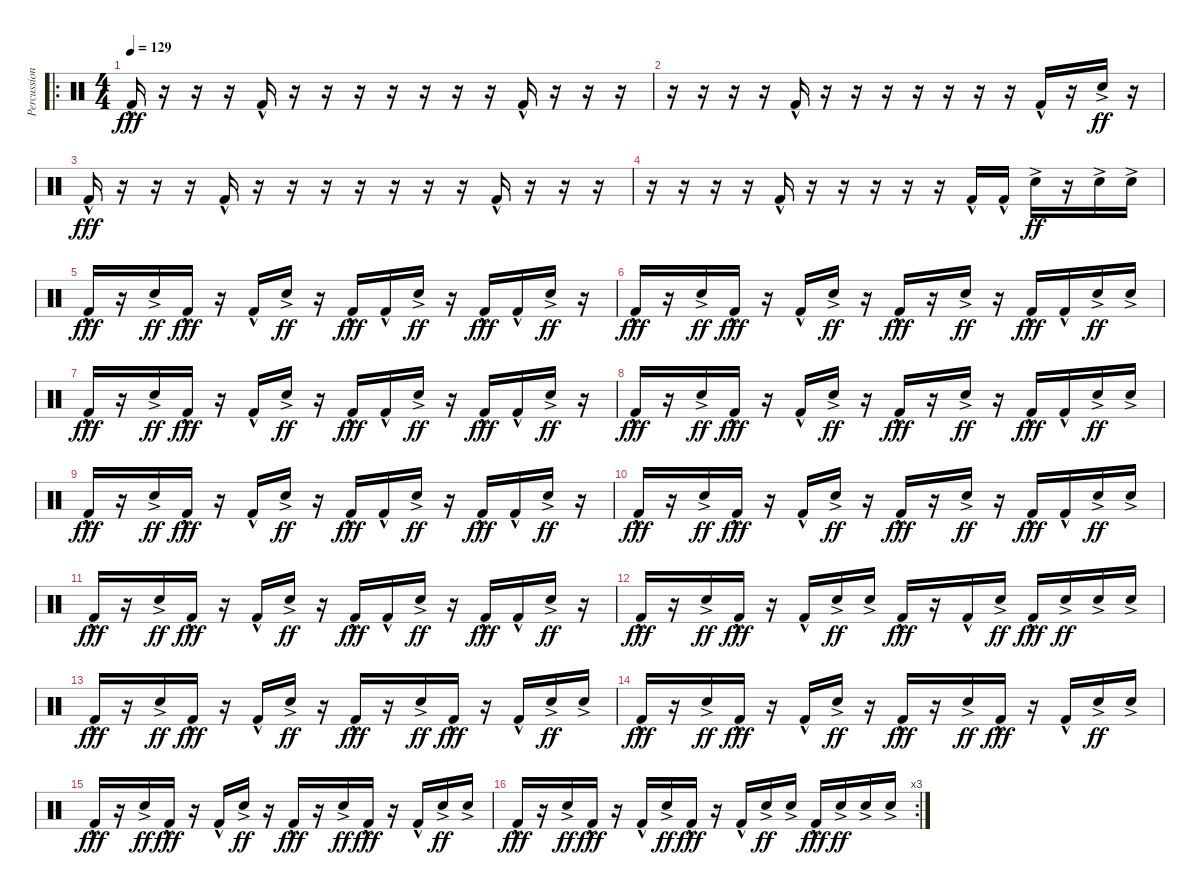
\track ("Percussion" "Percussion") {instrument percussion}
\staff {score}
\articulation defaults
\ro
\ts (4 4)
\tempo 129
\clef neutral
\ks c "Kick (hit) 2"{hac}.16{dy fff}
r.16 r.16 r.16 "Kick (hit) 2"{hac}.16 r.16 r.16 r.16 r.16 r.16 r.16 r.16 "Kick (hit) 2"{hac}.16 r.16 r.16 r.16 |
r.16 r.16 r.16 r.16 "Kick (hit) 2"{hac}.16 r.16 r.16 r.16 r.16 r.16 r.16 r.16 "Kick (hit) 2"{hac}.16 r.16 "Snare (hit) 2"{ac}.16{dy ff} r.16 |
"Kick (hit) 2"{hac}.16{dy fff} r.16 r.16 r.16 "Kick (hit) 2"{hac}.16 r.16 r.16 r.16 r.16 r.16 r.16 r.16 "Kick (hit) 2"{hac}.16 r.16 r.16 r.16 |
r.16 r.16 r.16 r.16 "Kick (hit) 2"{hac}.16 r.16 r.16 r.16 r.16 r.16 "Kick (hit) 2"{hac}.16 "Kick (hit) 2"{hac}.16 "Snare (hit) 2"{ac}.16{dy ff} r.16 "Snare (hit) 2"{ac}.16 "Snare (hit) 2"{ac}.16 |
"Kick (hit) 2"{hac}.16{dy fff} r.16 "Snare (hit) 2"{ac}.16{dy ff} "Kick (hit) 2"{hac}.16{dy fff} r.16 "Kick (hit) 2"{hac}.16 "Snare (hit) 2"{ac}.16{dy ff} r.16 "Kick (hit) 2"{hac}.16{dy fff} "Kick (hit) 2"{hac}.16 "Snare (hit) 2"{ac}.16{dy ff} r.16 "Kick (hit) 2"{hac}.16{dy fff} "Kick (hit) 2"{hac}.16 "Snare (hit) 2"{ac}.16{dy ff} r.16 |
"Kick (hit) 2"{hac}.16{dy fff} r.16 "Snare (hit) 2"{ac}.16{dy ff} "Kick (hit) 2"{hac}.16{dy fff} r.16 "Kick (hit) 2"{hac}.16 "Snare (hit) 2"{ac}.16{dy ff} r.16 "Kick (hit) 2"{hac}.16{dy fff} r.16 "Snare (hit) 2"{ac}.16{dy ff} r.16 "Kick (hit) 2"{hac}.16{dy fff} "Kick (hit) 2"{hac}.16 "Snare (hit) 2"{ac}.16{dy ff} "Snare (hit) 2"{ac}.16 |
"Kick (hit) 2"{hac}.16{dy fff} r.16 "Snare (hit) 2"{ac}.16{dy ff} "Kick (hit) 2"{hac}.16{dy fff} r.16 "Kick (hit) 2"{hac}.16 "Snare (hit) 2"{ac}.16{dy ff} r.16 "Kick (hit) 2"{hac}.16{dy fff} "Kick (hit) 2"{hac}.16 "Snare (hit) 2"{ac}.16{dy ff} r.16 "Kick (hit) 2"{hac}.16{dy fff} "Kick (hit) 2"{hac}.16 "Snare (hit) 2"{ac}.16{dy ff} r.16 |
"Kick (hit) 2"{hac}.16{dy fff} r.16 "Snare (hit) 2"{ac}.16{dy ff} "Kick (hit) 2"{hac}.16{dy fff} r.16 "Kick (hit) 2"{hac}.16 "Snare (hit) 2"{ac}.16{dy ff} r.16 "Kick (hit) 2"{hac}.16{dy fff} r.16 "Snare (hit) 2"{ac}.16{dy ff} r.16 "Kick (hit) 2"{hac}.16{dy fff} "Kick (hit) 2"{hac}.16 "Snare (hit) 2"{ac}.16{dy ff} "Snare (hit) 2"{ac}.16 |
"Kick (hit) 2"{hac}.16{dy fff} r.16 "Snare (hit) 2"{ac}.16{dy ff} "Kick (hit) 2"{hac}.16{dy fff} r.16 "Kick (hit) 2"{hac}.16 "Snare (hit) 2"{ac}.16{dy ff} r.16 "Kick (hit) 2"{hac}.16{dy fff} "Kick (hit) 2"{hac}.16 "Snare (hit) 2"{ac}.16{dy ff} r.16 "Kick (hit) 2"{hac}.16{dy fff} "Kick (hit) 2"{hac}.16 "Snare (hit) 2"{ac}.16{dy ff} r.16 |
"Kick (hit) 2"{hac}.16{dy fff} r.16 "Snare (hit) 2"{ac}.16{dy ff} "Kick (hit) 2"{hac}.16{dy fff} r.16 "Kick (hit) 2"{hac}.16 "Snare (hit) 2"{ac}.16{dy ff} r.16 "Kick (hit) 2"{hac}.16{dy fff} r.16 "Snare (hit) 2"{ac}.16{dy ff} r.16 "Kick (hit) 2"{hac}.16{dy fff} "Kick (hit) 2"{hac}.16 "Snare (hit) 2"{ac}.16{dy ff} "Snare (hit) 2"{ac}.16 |
"Kick (hit) 2"{hac}.16{dy fff} r.16 "Snare (hit) 2"{ac}.16{dy ff} "Kick (hit) 2"{hac}.16{dy fff} r.16 "Kick (hit) 2"{hac}.16 "Snare (hit) 2"{ac}.16{dy ff} r.16 "Kick (hit) 2"{hac}.16{dy fff} "Kick (hit) 2"{hac}.16 "Snare (hit) 2"{ac}.16{dy ff} r.16 "Kick (hit) 2"{hac}.16{dy fff} "Kick (hit) 2"{hac}.16 "Snare (hit) 2"{ac}.16{dy ff} r.16 |
"Kick (hit) 2"{hac}.16{dy fff} r.16 "Snare (hit) 2"{ac}.16{dy ff} "Kick (hit) 2"{hac}.16{dy fff} r.16 "Kick (hit) 2"{hac}.16 "Snare (hit) 2"{ac}.16{dy ff} "Snare (hit) 2"{ac}.16 "Kick (hit) 2"{hac}.16{dy fff} r.16 "Kick (hit) 2"{hac}.16 "Snare (hit) 2"{ac}.16{dy ff} "Kick (hit) 2"{hac}.16{dy fff} "Snare (hit) 2"{ac}.16{dy ff} "Snare (hit) 2"{ac}.16 "Snare (hit) 2"{ac}.16 |
"Kick (hit) 2"{hac}.16{dy fff} r.16 "Snare (hit) 2"{ac}.16{dy ff} "Kick (hit) 2"{hac}.16{dy fff} r.16 "Kick (hit) 2"{hac}.16 "Snare (hit) 2"{ac}.16{dy ff} r.16 "Kick (hit) 2"{hac}.16{dy fff} r.16 "Snare (hit) 2"{ac}.16{dy ff} "Kick (hit) 2"{hac}.16{dy fff} r.16 "Kick (hit) 2"{hac}.16 "Snare (hit) 2"{ac}.16{dy ff} "Snare (hit) 2"{ac}.16 |
"Kick (hit) 2"{hac}.16{dy fff} r.16 "Snare (hit) 2"{ac}.16{dy ff} "Kick (hit) 2"{hac}.16{dy fff} r.16 "Kick (hit) 2"{hac}.16 "Snare (hit) 2"{ac}.16{dy ff} r.16 "Kick (hit) 2"{hac}.16{dy fff} r.16 "Snare (hit) 2"{ac}.16{dy ff} "Kick (hit) 2"{hac}.16{dy fff} r.16 "Kick (hit) 2"{hac}.16 "Snare (hit) 2"{ac}.16{dy ff} "Snare (hit) 2"{ac}.16 |
"Kick (hit) 2"{hac}.16{dy fff} r.16 "Snare (hit) 2"{ac}.16{dy ff} "Kick (hit) 2"{hac}.16{dy fff} r.16 "Kick (hit) 2"{hac}.16 "Snare (hit) 2"{ac}.16{dy ff} r.16 "Kick (hit) 2"{hac}.16{dy fff} r.16 "Snare (hit) 2"{ac}.16{dy ff} "Kick (hit) 2"{hac}.16{dy fff} r.16 "Kick (hit) 2"{hac}.16 "Snare (hit) 2"{ac}.16{dy ff} "Snare (hit) 2"{ac}.16 |
\rc 3 "Kick (hit) 2"{hac}.16{dy fff}
r.16 "Snare (hit) 2"{ac}.16{dy ff} "Kick (hit) 2"{hac}.16{dy fff} r.16 "Kick (hit) 2"{hac}.16 "Snare (hit) 2"{ac}.16{dy ff} "Kick (hit) 2"{hac}.16{dy fff} r.16 "Kick (hit) 2"{hac}.16 "Snare (hit) 2"{ac}.16{dy ff} "Snare (hit) 2"{ac}.16 "Kick (hit) 2"{hac}.16{dy fff} "Snare (hit) 2"{ac}.16{dy ff} "Snare (hit) 2"{ac}.16 "Snare (hit) 2"{ac}.16
